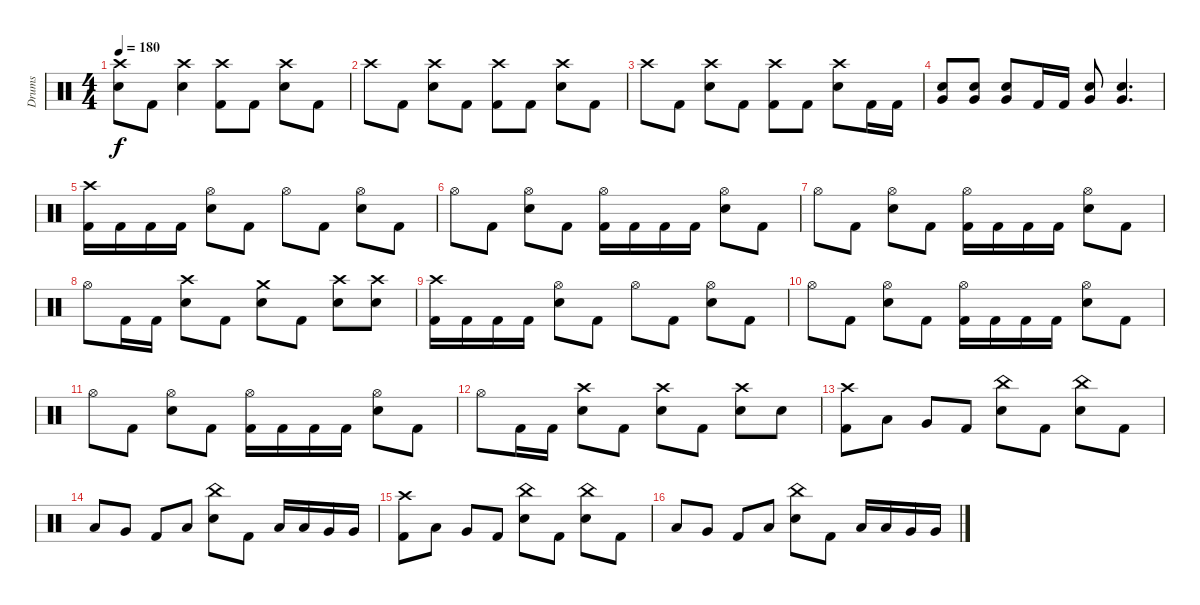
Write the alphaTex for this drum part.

\track ("Drums" "Drums") {instrument percussion}
\staff {score}
\articulation defaults
\ts (4 4)
\tempo 180
\clef neutral
\ks c
("Crash high (hit)"{t} "Snare (hit)"{t}).8{dy f} "Kick (hit) 2".8 ("Crash high (hit)" "Electric Snare (hit)").4 ("Crash high (hit)" "Kick (hit) 2").8 "Kick (hit) 2".8 ("Crash high (hit)" "Electric Snare (hit)").8 "Kick (hit) 2".8 |
"Crash high (hit)".8 "Kick (hit) 2".8 ("Crash high (hit)" "Electric Snare (hit)").8 "Kick (hit) 2".8 ("Crash high (hit)" "Kick (hit) 2").8 "Kick (hit) 2".8 ("Crash high (hit)" "Electric Snare (hit)").8 "Kick (hit) 2".8 |
"Crash high (hit)".8 "Kick (hit) 2".8 ("Crash high (hit)" "Electric Snare (hit)").8 "Kick (hit) 2".8 ("Crash high (hit)" "Kick (hit) 2").8 "Kick (hit) 2".8 ("Crash high (hit)" "Electric Snare (hit)").8 "Kick (hit) 2".16 "Kick (hit) 2".16 |
("Very Low Tom (hit)" "Electric Snare (hit)").8 ("Very Low Tom (hit)" "Electric Snare (hit)").8 ("Very Low Tom (hit)" "Electric Snare (hit)").8 "Kick (hit) 2".16 "Kick (hit) 2".16 ("Very Low Tom (hit)" "Electric Snare (hit)").8 ("Very Low Tom (hit)" "Electric Snare (hit)").4{d} |
("Crash high (hit)" "Kick (hit) 2").16 "Kick (hit) 2".16 "Kick (hit) 2".16 "Kick (hit) 2".16 ("Hi-Hat (open)" "Electric Snare (hit)").8 "Kick (hit) 2".8 "Hi-Hat (open)".8 "Kick (hit) 2".8 ("Hi-Hat (open)" "Electric Snare (hit)").8 "Kick (hit) 2".8 |
"Hi-Hat (open)".8 "Kick (hit) 2".8 ("Hi-Hat (open)" "Electric Snare (hit)").8 "Kick (hit) 2".8 ("Hi-Hat (open)" "Kick (hit) 2").16 "Kick (hit) 2".16 "Kick (hit) 2".16 "Kick (hit) 2".16 ("Hi-Hat (open)" "Electric Snare (hit)").8 "Kick (hit) 2".8 |
"Hi-Hat (open)".8 "Kick (hit) 2".8 ("Hi-Hat (open)" "Electric Snare (hit)").8 "Kick (hit) 2".8 ("Hi-Hat (open)" "Kick (hit) 2").16 "Kick (hit) 2".16 "Kick (hit) 2".16 "Kick (hit) 2".16 ("Hi-Hat (open)" "Electric Snare (hit)").8 "Kick (hit) 2".8 |
"Hi-Hat (open)".8 "Kick (hit) 2".16 "Kick (hit) 2".16 ("Crash high (hit)" "Electric Snare (hit)").8 "Kick (hit) 2".8 ("Crash medium (hit)" "Electric Snare (hit)").8 "Kick (hit) 2".8 ("Crash high (hit)" "Electric Snare (hit)").8 ("Crash high (hit)" "Electric Snare (hit)").8 |
("Crash high (hit)" "Kick (hit) 2").16 "Kick (hit) 2".16 "Kick (hit) 2".16 "Kick (hit) 2".16 ("Hi-Hat (open)" "Electric Snare (hit)").8 "Kick (hit) 2".8 "Hi-Hat (open)".8 "Kick (hit) 2".8 ("Hi-Hat (open)" "Electric Snare (hit)").8 "Kick (hit) 2".8 |
"Hi-Hat (open)".8 "Kick (hit) 2".8 ("Hi-Hat (open)" "Electric Snare (hit)").8 "Kick (hit) 2".8 ("Hi-Hat (open)" "Kick (hit) 2").16 "Kick (hit) 2".16 "Kick (hit) 2".16 "Kick (hit) 2".16 ("Hi-Hat (open)" "Electric Snare (hit)").8 "Kick (hit) 2".8 |
"Hi-Hat (open)".8 "Kick (hit) 2".8 ("Hi-Hat (open)" "Electric Snare (hit)").8 "Kick (hit) 2".8 ("Hi-Hat (open)" "Kick (hit) 2").16 "Kick (hit) 2".16 "Kick (hit) 2".16 "Kick (hit) 2".16 ("Hi-Hat (open)" "Electric Snare (hit)").8 "Kick (hit) 2".8 |
"Hi-Hat (open)".8 "Kick (hit) 2".16 "Kick (hit) 2".16 ("Crash high (hit)" "Electric Snare (hit)").8 "Kick (hit) 2".8 ("Crash high (hit)" "Electric Snare (hit)").8 "Kick (hit) 2".8 ("Crash high (hit)" "Electric Snare (hit)").8 "Electric Snare (hit)".8 |
("Crash high (hit)" "Kick (hit) 2").8 "Low Tom (hit)".8 "Very Low Tom (hit)".8 "Kick (hit) 2".8 ("China (hit)" "Electric Snare (hit)").8 "Kick (hit) 2".8 ("China (hit)" "Electric Snare (hit)").8 "Kick (hit) 2".8 |
"Low Tom (hit)".8 "Very Low Tom (hit)".8 "Kick (hit) 2".8 "Low Floor Tom (hit)".8 ("China (hit)" "Electric Snare (hit)").8 "Kick (hit) 2".8 "Low Tom (hit)".16 "Low Tom (hit)".16 "Very Low Tom (hit)".16 "Very Low Tom (hit)".16 |
("Crash high (hit)" "Kick (hit) 2").8 "Low Tom (hit)".8 "Very Low Tom (hit)".8 "Kick (hit) 2".8 ("China (hit)" "Electric Snare (hit)").8 "Kick (hit) 2".8 ("China (hit)" "Electric Snare (hit)").8 "Kick (hit) 2".8 |
"Low Tom (hit)".8 "Very Low Tom (hit)".8 "Kick (hit) 2".8 "Low Floor Tom (hit)".8 ("China (hit)" "Electric Snare (hit)").8 "Kick (hit) 2".8 "Low Tom (hit)".16 "Low Tom (hit)".16 "Very Low Tom (hit)".16 "Very Low Tom (hit)".16
